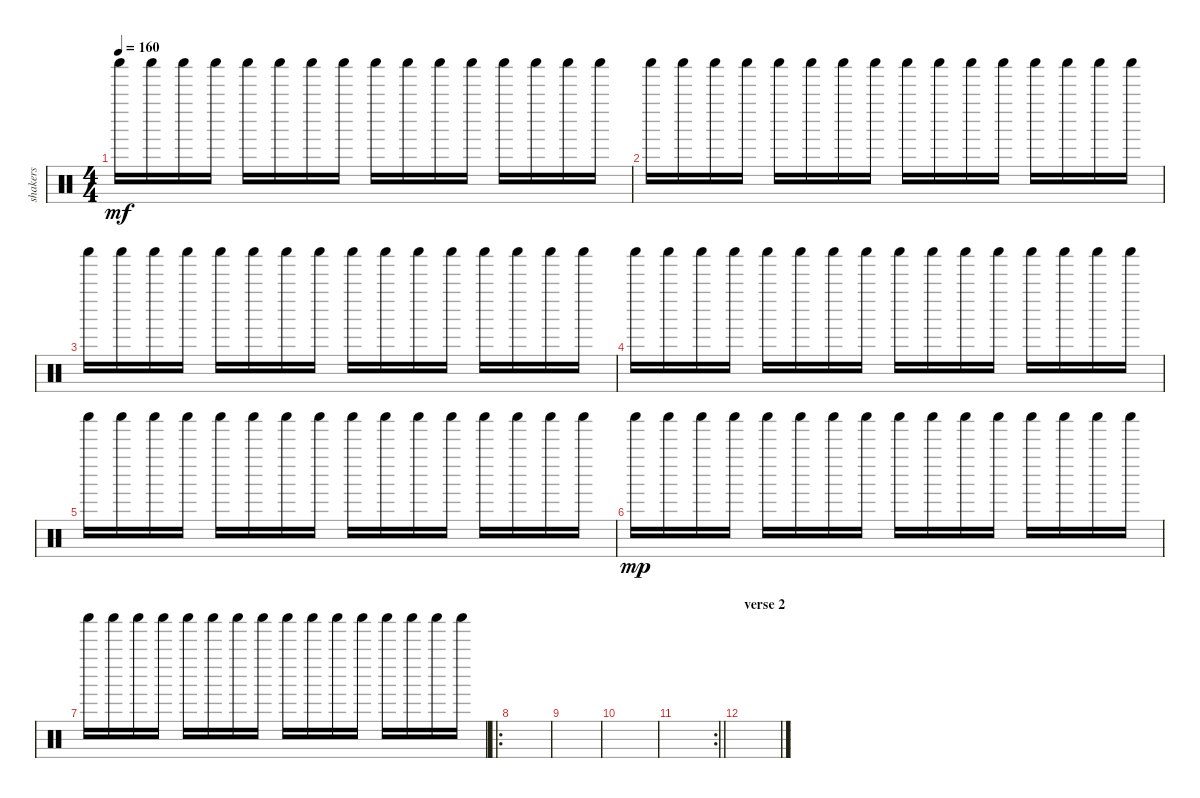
\track ("shakers" "shakers") {instrument percussion}
\staff {score}
\articulation defaults
\ts (4 4)
\tempo 160
\clef neutral
\ks c "Shaker (hit)".16{dy mf} "Shaker (hit)".16 "Shaker (hit)".16 "Shaker (hit)".16 "Shaker (hit)".16 "Shaker (hit)".16 "Shaker (hit)".16 "Shaker (hit)".16 "Shaker (hit)".16 "Shaker (hit)".16 "Shaker (hit)".16 "Shaker (hit)".16 "Shaker (hit)".16 "Shaker (hit)".16 "Shaker (hit)".16 "Shaker (hit)".16
|
"Shaker (hit)".16 "Shaker (hit)".16 "Shaker (hit)".16 "Shaker (hit)".16 "Shaker (hit)".16 "Shaker (hit)".16 "Shaker (hit)".16 "Shaker (hit)".16 "Shaker (hit)".16 "Shaker (hit)".16 "Shaker (hit)".16 "Shaker (hit)".16 "Shaker (hit)".16 "Shaker (hit)".16 "Shaker (hit)".16 "Shaker (hit)".16 |
"Shaker (hit)".16 "Shaker (hit)".16 "Shaker (hit)".16 "Shaker (hit)".16 "Shaker (hit)".16 "Shaker (hit)".16 "Shaker (hit)".16 "Shaker (hit)".16 "Shaker (hit)".16 "Shaker (hit)".16 "Shaker (hit)".16 "Shaker (hit)".16 "Shaker (hit)".16 "Shaker (hit)".16 "Shaker (hit)".16 "Shaker (hit)".16 |
"Shaker (hit)".16 "Shaker (hit)".16 "Shaker (hit)".16 "Shaker (hit)".16 "Shaker (hit)".16 "Shaker (hit)".16 "Shaker (hit)".16 "Shaker (hit)".16 "Shaker (hit)".16 "Shaker (hit)".16 "Shaker (hit)".16 "Shaker (hit)".16 "Shaker (hit)".16 "Shaker (hit)".16 "Shaker (hit)".16 "Shaker (hit)".16 |
"Shaker (hit)".16 "Shaker (hit)".16 "Shaker (hit)".16 "Shaker (hit)".16 "Shaker (hit)".16 "Shaker (hit)".16 "Shaker (hit)".16 "Shaker (hit)".16 "Shaker (hit)".16 "Shaker (hit)".16 "Shaker (hit)".16 "Shaker (hit)".16 "Shaker (hit)".16 "Shaker (hit)".16 "Shaker (hit)".16 "Shaker (hit)".16 |
"Shaker (hit)".16{dy mp} "Shaker (hit)".16 "Shaker (hit)".16 "Shaker (hit)".16 "Shaker (hit)".16 "Shaker (hit)".16 "Shaker (hit)".16 "Shaker (hit)".16 "Shaker (hit)".16 "Shaker (hit)".16 "Shaker (hit)".16 "Shaker (hit)".16 "Shaker (hit)".16 "Shaker (hit)".16 "Shaker (hit)".16 "Shaker (hit)".16 |
"Shaker (hit)".16 "Shaker (hit)".16 "Shaker (hit)".16 "Shaker (hit)".16 "Shaker (hit)".16 "Shaker (hit)".16 "Shaker (hit)".16 "Shaker (hit)".16 "Shaker (hit)".16 "Shaker (hit)".16 "Shaker (hit)".16 "Shaker (hit)".16 "Shaker (hit)".16 "Shaker (hit)".16 "Shaker (hit)".16 "Shaker (hit)".16 |
\ro
|
|
|
\rc 2
\barLineRight lightlight
|
\section ("" "verse 2")
